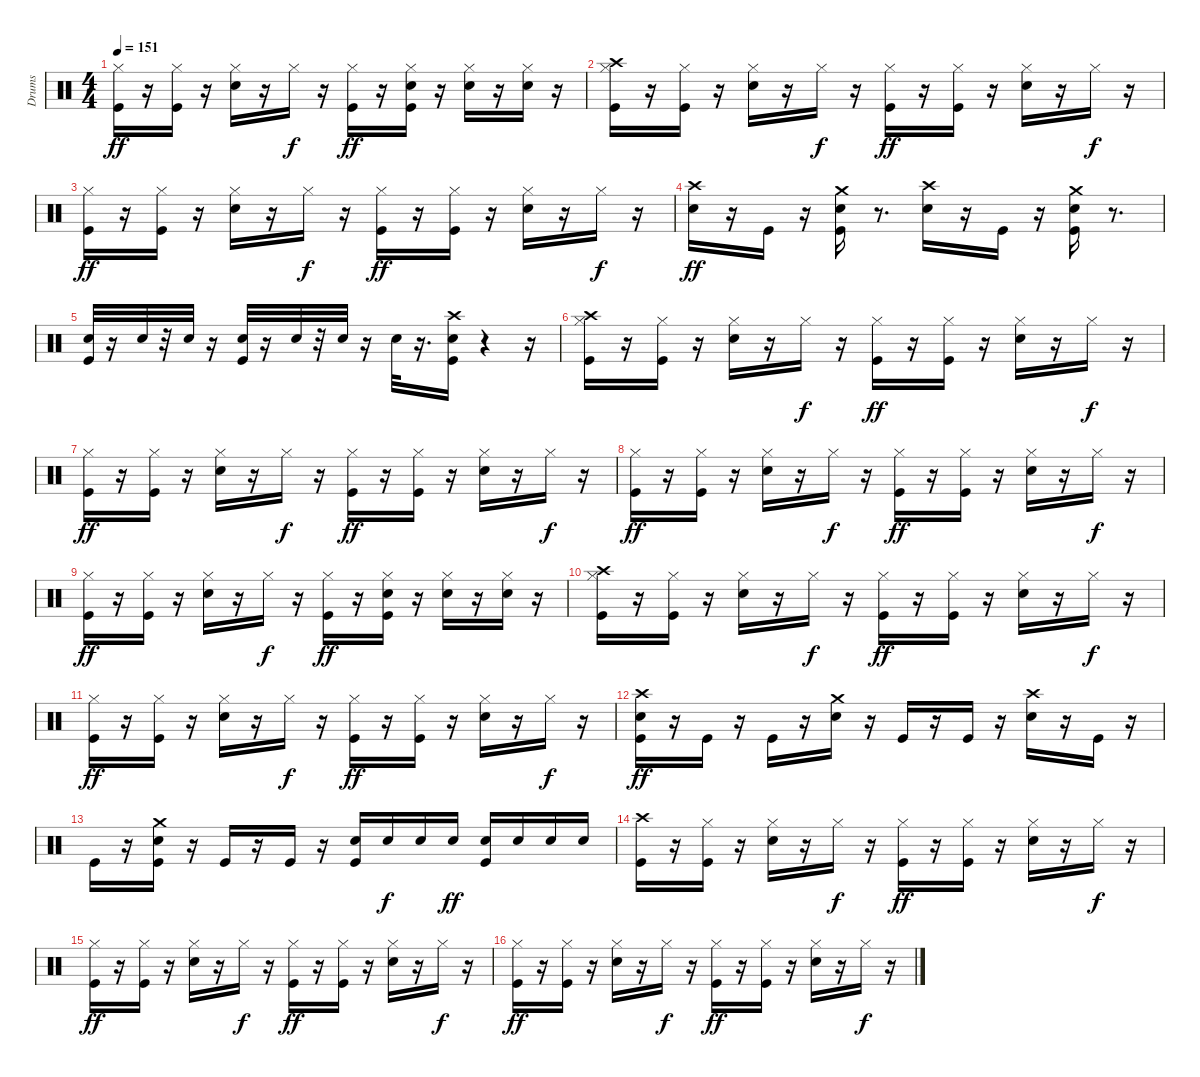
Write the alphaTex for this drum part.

\track ("Drums" "Drums") {instrument percussion}
\staff {score}
\articulation defaults
\ts (4 4)
\tempo 151
\clef neutral
\ks c
("Kick (hit)" "Hi-Hat (closed)").16{dy ff} r.16 ("Kick (hit)" "Hi-Hat (closed)").16 r.16 ("Snare (hit) 2" "Hi-Hat (closed)").16 r.16 "Hi-Hat (closed)".16{dy f} r.16 ("Kick (hit)" "Hi-Hat (closed)").16{dy ff} r.16 ("Kick (hit)" "Snare (hit) 2" "Hi-Hat (closed)").16 r.16 ("Snare (hit) 2" "Hi-Hat (closed)").16 r.16 ("Snare (hit) 2" "Hi-Hat (closed)").16 r.16 |
("Kick (hit)" "Hi-Hat (closed)" "Crash high (hit)").16 r.16 ("Kick (hit)" "Hi-Hat (closed)").16 r.16 ("Snare (hit) 2" "Hi-Hat (closed)").16 r.16 "Hi-Hat (closed)".16{dy f} r.16 ("Kick (hit)" "Hi-Hat (closed)").16{dy ff} r.16 ("Kick (hit)" "Hi-Hat (closed)").16 r.16 ("Snare (hit) 2" "Hi-Hat (closed)").16 r.16 "Hi-Hat (closed)".16{dy f} r.16 |
("Kick (hit)" "Hi-Hat (closed)").16{dy ff} r.16 ("Kick (hit)" "Hi-Hat (closed)").16 r.16 ("Snare (hit) 2" "Hi-Hat (closed)").16 r.16 "Hi-Hat (closed)".16{dy f} r.16 ("Kick (hit)" "Hi-Hat (closed)").16{dy ff} r.16 ("Kick (hit)" "Hi-Hat (closed)").16 r.16 ("Snare (hit) 2" "Hi-Hat (closed)").16 r.16 "Hi-Hat (closed)".16{dy f} r.16 |
("Snare (hit) 2" "Crash high (hit)").16{dy ff} r.16 "Kick (hit)".16 r.16 ("Kick (hit)" "Snare (hit) 2" "Crash medium (hit)").16 r.8{d} ("Snare (hit) 2" "Crash high (hit)").16 r.16 "Kick (hit)".16 r.16 ("Kick (hit)" "Snare (hit) 2" "Crash medium (hit)").16 r.8{d} |
("Kick (hit)" "Snare (hit) 2").32 r.16 "Snare (hit) 2".32 r.32 "Snare (hit) 2".32 r.16 ("Kick (hit)" "Snare (hit) 2").32 r.16 "Snare (hit) 2".32 r.32 "Snare (hit) 2".32 r.16 "Snare (hit) 2".32 r.16{d} ("Kick (hit)" "Snare (hit) 2" "Crash high (hit)").16 r.4 r.16 |
("Kick (hit)" "Hi-Hat (closed)" "Crash high (hit)").16 r.16 ("Kick (hit)" "Hi-Hat (closed)").16 r.16 ("Snare (hit) 2" "Hi-Hat (closed)").16 r.16 "Hi-Hat (closed)".16{dy f} r.16 ("Kick (hit)" "Hi-Hat (closed)").16{dy ff} r.16 ("Kick (hit)" "Hi-Hat (closed)").16 r.16 ("Snare (hit) 2" "Hi-Hat (closed)").16 r.16 "Hi-Hat (closed)".16{dy f} r.16 |
("Kick (hit)" "Hi-Hat (closed)").16{dy ff} r.16 ("Kick (hit)" "Hi-Hat (closed)").16 r.16 ("Snare (hit) 2" "Hi-Hat (closed)").16 r.16 "Hi-Hat (closed)".16{dy f} r.16 ("Kick (hit)" "Hi-Hat (closed)").16{dy ff} r.16 ("Kick (hit)" "Hi-Hat (closed)").16 r.16 ("Snare (hit) 2" "Hi-Hat (closed)").16 r.16 "Hi-Hat (closed)".16{dy f} r.16 |
("Kick (hit)" "Hi-Hat (closed)").16{dy ff} r.16 ("Kick (hit)" "Hi-Hat (closed)").16 r.16 ("Snare (hit) 2" "Hi-Hat (closed)").16 r.16 "Hi-Hat (closed)".16{dy f} r.16 ("Kick (hit)" "Hi-Hat (closed)").16{dy ff} r.16 ("Kick (hit)" "Hi-Hat (closed)").16 r.16 ("Snare (hit) 2" "Hi-Hat (closed)").16 r.16 "Hi-Hat (closed)".16{dy f} r.16 |
("Kick (hit)" "Hi-Hat (closed)").16{dy ff} r.16 ("Kick (hit)" "Hi-Hat (closed)").16 r.16 ("Snare (hit) 2" "Hi-Hat (closed)").16 r.16 "Hi-Hat (closed)".16{dy f} r.16 ("Kick (hit)" "Hi-Hat (closed)").16{dy ff} r.16 ("Kick (hit)" "Snare (hit) 2" "Hi-Hat (closed)").16 r.16 ("Snare (hit) 2" "Hi-Hat (closed)").16 r.16 ("Snare (hit) 2" "Hi-Hat (closed)").16 r.16 |
("Kick (hit)" "Hi-Hat (closed)" "Crash high (hit)").16 r.16 ("Kick (hit)" "Hi-Hat (closed)").16 r.16 ("Snare (hit) 2" "Hi-Hat (closed)").16 r.16 "Hi-Hat (closed)".16{dy f} r.16 ("Kick (hit)" "Hi-Hat (closed)").16{dy ff} r.16 ("Kick (hit)" "Hi-Hat (closed)").16 r.16 ("Snare (hit) 2" "Hi-Hat (closed)").16 r.16 "Hi-Hat (closed)".16{dy f} r.16 |
("Kick (hit)" "Hi-Hat (closed)").16{dy ff} r.16 ("Kick (hit)" "Hi-Hat (closed)").16 r.16 ("Snare (hit) 2" "Hi-Hat (closed)").16 r.16 "Hi-Hat (closed)".16{dy f} r.16 ("Kick (hit)" "Hi-Hat (closed)").16{dy ff} r.16 ("Kick (hit)" "Hi-Hat (closed)").16 r.16 ("Snare (hit) 2" "Hi-Hat (closed)").16 r.16 "Hi-Hat (closed)".16{dy f} r.16 |
("Kick (hit)" "Snare (hit) 2" "Crash high (hit)").16{dy ff} r.16 "Kick (hit)".16 r.16 "Kick (hit)".16 r.16 ("Snare (hit) 2" "Crash medium (hit)").16 r.16 "Kick (hit)".16 r.16 "Kick (hit)".16 r.16 ("Snare (hit) 2" "Crash high (hit)").16 r.16 "Kick (hit)".16 r.16 |
"Kick (hit)".16 r.16 ("Kick (hit)" "Snare (hit) 2" "Crash medium (hit)").16 r.16 "Kick (hit)".16 r.16 "Kick (hit)".16 r.16 ("Kick (hit)" "Snare (hit) 2").16 "Snare (hit) 2".16{dy f} "Snare (hit) 2".16 "Snare (hit) 2".16{dy ff} ("Kick (hit)" "Snare (hit) 2").16 "Snare (hit) 2".16 "Snare (hit) 2".16 "Snare (hit) 2".16 |
("Kick (hit)" "Crash high (hit)").16 r.16 ("Kick (hit)" "Hi-Hat (closed)").16 r.16 ("Snare (hit) 2" "Hi-Hat (closed)").16 r.16 "Hi-Hat (closed)".16{dy f} r.16 ("Kick (hit)" "Hi-Hat (closed)").16{dy ff} r.16 ("Kick (hit)" "Hi-Hat (closed)").16 r.16 ("Snare (hit) 2" "Hi-Hat (closed)").16 r.16 "Hi-Hat (closed)".16{dy f} r.16 |
("Kick (hit)" "Hi-Hat (closed)").16{dy ff} r.16 ("Kick (hit)" "Hi-Hat (closed)").16 r.16 ("Snare (hit) 2" "Hi-Hat (closed)").16 r.16 "Hi-Hat (closed)".16{dy f} r.16 ("Kick (hit)" "Hi-Hat (closed)").16{dy ff} r.16 ("Kick (hit)" "Hi-Hat (closed)").16 r.16 ("Snare (hit) 2" "Hi-Hat (closed)").16 r.16 "Hi-Hat (closed)".16{dy f} r.16 |
("Kick (hit)" "Hi-Hat (closed)").16{dy ff} r.16 ("Kick (hit)" "Hi-Hat (closed)").16 r.16 ("Snare (hit) 2" "Hi-Hat (closed)").16 r.16 "Hi-Hat (closed)".16{dy f} r.16 ("Kick (hit)" "Hi-Hat (closed)").16{dy ff} r.16 ("Kick (hit)" "Hi-Hat (closed)").16 r.16 ("Snare (hit) 2" "Hi-Hat (closed)").16 r.16 "Hi-Hat (closed)".16{dy f} r.16
